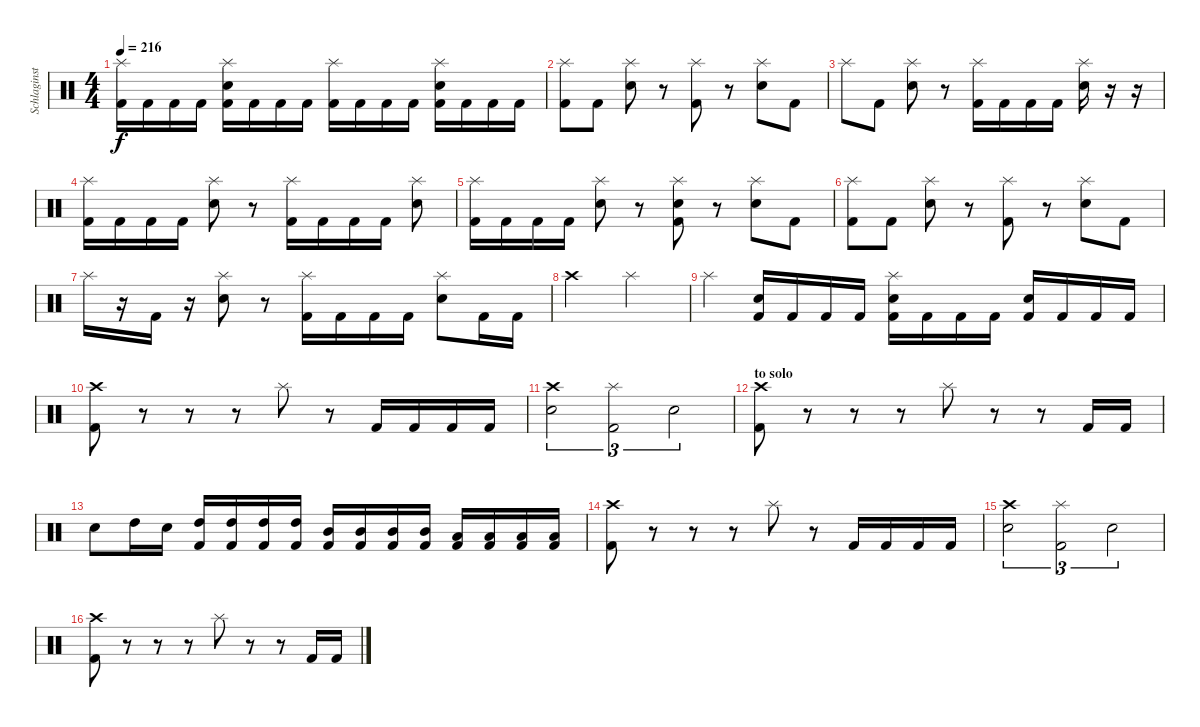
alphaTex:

\track ("Schlaginstrumente - Auswahl" "Schlaginst") {instrument percussion}
\staff {score}
\articulation defaults
\ts (4 4)
\tempo 216
\clef neutral
\ks c
("Splash (hit)" "Kick (hit) 2").16{dy f} "Kick (hit) 2".16 "Kick (hit) 2".16 "Kick (hit) 2".16 ("Electric Snare (hit)" "Splash (hit)" "Kick (hit) 2").16 "Kick (hit) 2".16 "Kick (hit) 2".16 "Kick (hit) 2".16 ("Splash (hit)" "Kick (hit) 2").16 "Kick (hit) 2".16 "Kick (hit) 2".16 "Kick (hit) 2".16 ("Electric Snare (hit)" "Splash (hit)" "Kick (hit) 2").16 "Kick (hit) 2".16 "Kick (hit) 2".16 "Kick (hit) 2".16 |
("Splash (hit)" "Kick (hit) 2").8 "Kick (hit) 2".8 ("Electric Snare (hit)" "Splash (hit)").8 r.8 ("Splash (hit)" "Kick (hit) 2").8 r.8 ("Electric Snare (hit)" "Splash (hit)").8 "Kick (hit) 2".8 |
"Splash (hit)".8 "Kick (hit) 2".8 ("Electric Snare (hit)" "Splash (hit)").8 r.8 ("Splash (hit)" "Kick (hit) 2").16 "Kick (hit) 2".16 "Kick (hit) 2".16 "Kick (hit) 2".16 ("Electric Snare (hit)" "Splash (hit)").16 r.16 r.16 |
("Splash (hit)" "Kick (hit) 2").16 "Kick (hit) 2".16 "Kick (hit) 2".16 "Kick (hit) 2".16 ("Electric Snare (hit)" "Splash (hit)").8 r.8 ("Splash (hit)" "Kick (hit) 2").16 "Kick (hit) 2".16 "Kick (hit) 2".16 "Kick (hit) 2".16 ("Electric Snare (hit)" "Splash (hit)").8 |
("Splash (hit)" "Kick (hit) 2").16 "Kick (hit) 2".16 "Kick (hit) 2".16 "Kick (hit) 2".16 ("Electric Snare (hit)" "Splash (hit)").8 r.8 ("Electric Snare (hit)" "Splash (hit)" "Kick (hit) 2").8 r.8 ("Electric Snare (hit)" "Splash (hit)").8 "Kick (hit) 2".8 |
("Splash (hit)" "Kick (hit) 2").8 "Kick (hit) 2".8 ("Electric Snare (hit)" "Splash (hit)").8 r.8 ("Splash (hit)" "Kick (hit) 2").8 r.8 ("Electric Snare (hit)" "Splash (hit)").8 "Kick (hit) 2".8 |
"Splash (hit)".16 r.16 "Kick (hit) 2".16 r.16 ("Electric Snare (hit)" "Splash (hit)").8 r.8 ("Splash (hit)" "Kick (hit) 2").16 "Kick (hit) 2".16 "Kick (hit) 2".16 "Kick (hit) 2".16 ("Electric Snare (hit)" "Splash (hit)").8 "Kick (hit) 2".16 "Kick (hit) 2".16 |
"Crash high (hit)".2 "Splash (hit)".2 |
"Splash (hit)".4 ("Electric Snare (hit)" "Kick (hit) 2").16 "Kick (hit) 2".16 "Kick (hit) 2".16 "Kick (hit) 2".16 ("Electric Snare (hit)" "Splash (hit)" "Kick (hit) 2").16 "Kick (hit) 2".16 "Kick (hit) 2".16 "Kick (hit) 2".16 ("Electric Snare (hit)" "Kick (hit) 2").16 "Kick (hit) 2".16 "Kick (hit) 2".16 "Kick (hit) 2".16 |
("Crash high (hit)" "Kick (hit) 2").8 r.8 r.8 r.8 "Splash (hit)".8 r.8 "Kick (hit) 2".16 "Kick (hit) 2".16 "Kick (hit) 2".16 "Kick (hit) 2".16 |
("Electric Snare (hit)" "Crash high (hit)").2{tu (3 2)} ("Splash (hit)" "Kick (hit) 2").2{tu (3 2)} "Electric Snare (hit)".2{tu (3 2)} |
\section ("" "to solo")
("Crash high (hit)" "Kick (hit) 2").8 r.8 r.8 r.8 "Splash (hit)".8 r.8 r.8 "Kick (hit) 2".16 "Kick (hit) 2".16 |
"Electric Snare (hit)".8 "High Tom (hit)".16 "Electric Snare (hit)".16 ("High Tom (hit)" "Kick (hit) 2").16 ("High Tom (hit)" "Kick (hit) 2").16 ("High Tom (hit)" "Kick (hit) 2").16 ("High Tom (hit)" "Kick (hit) 2").16 ("Mid Tom (hit)" "Kick (hit) 2").16 ("Mid Tom (hit)" "Kick (hit) 2").16 ("Mid Tom (hit)" "Kick (hit) 2").16 ("Mid Tom (hit)" "Kick (hit) 2").16 ("Low Tom (hit)" "Kick (hit) 2").16 ("Low Tom (hit)" "Kick (hit) 2").16 ("Low Tom (hit)" "Kick (hit) 2").16 ("Low Tom (hit)" "Kick (hit) 2").16 |
("Crash high (hit)" "Kick (hit) 2").8 r.8 r.8 r.8 "Splash (hit)".8 r.8 "Kick (hit) 2".16 "Kick (hit) 2".16 "Kick (hit) 2".16 "Kick (hit) 2".16 |
("Electric Snare (hit)" "Crash high (hit)").2{tu (3 2)} ("Splash (hit)" "Kick (hit) 2").2{tu (3 2)} "Electric Snare (hit)".2{tu (3 2)} |
("Crash high (hit)" "Kick (hit) 2").8 r.8 r.8 r.8 "Splash (hit)".8 r.8 r.8 "Kick (hit) 2".16 "Kick (hit) 2".16
